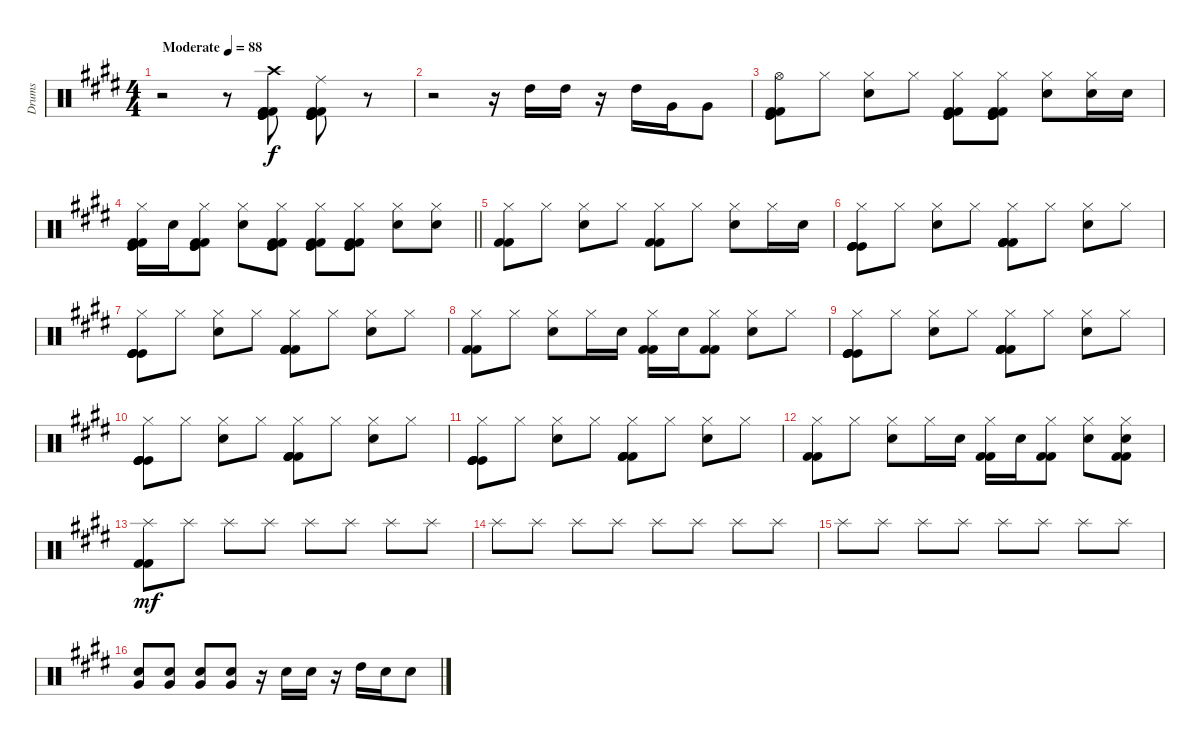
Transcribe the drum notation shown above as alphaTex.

\track ("Drums" "Drums") {instrument percussion}
\staff {score}
\articulation defaults
\ts (4 4)
\tempo (88 "Moderate")
\clef neutral
\ks e
r.2{dy f} r.8 ("Crash high (hit)" "Kick (hit) 2" "Kick (hit) 2" "Kick (hit) 2" "Kick (hit)" "Kick (hit)").8 ("Ride (middle)" "Kick (hit)" "Kick (hit) 2" "Kick (hit) 2" "Kick (hit)" "Kick (hit)").8 r.8 |
r.2 r.16 "High Tom (hit)".16 "High Tom (hit)".16 r.16 "High Tom (hit)".16 "Very Low Tom (hit)".16 "Very Low Tom (hit)".8 |
("Hi-Hat (open)" "Kick (hit) 2" "Kick (hit) 2" "Kick (hit)" "Kick (hit)").8 "Hi-Hat (closed)".8 ("Hi-Hat (closed)" "Snare (hit) 2").8 "Hi-Hat (closed)".8 ("Hi-Hat (closed)" "Kick (hit) 2" "Kick (hit) 2" "Kick (hit)" "Kick (hit)").8 ("Hi-Hat (closed)" "Kick (hit) 2" "Kick (hit) 2" "Kick (hit)" "Kick (hit)").8 ("Hi-Hat (closed)" "Snare (hit) 2").8 ("Hi-Hat (closed)" "Snare (hit) 2").16 "Snare (hit) 2".16 |
\barLineRight lightlight
("Hi-Hat (closed)" "Kick (hit) 2" "Kick (hit) 2" "Kick (hit)" "Kick (hit)").16 "Snare (hit) 2".16 ("Hi-Hat (closed)" "Kick (hit) 2" "Kick (hit) 2" "Kick (hit)" "Kick (hit)").8 ("Hi-Hat (closed)" "Snare (hit) 2").8 ("Hi-Hat (closed)" "Kick (hit) 2" "Kick (hit) 2" "Kick (hit)" "Kick (hit)").8 ("Hi-Hat (closed)" "Kick (hit) 2" "Kick (hit) 2" "Kick (hit)" "Kick (hit)").8 ("Hi-Hat (closed)" "Kick (hit) 2" "Kick (hit) 2" "Kick (hit)" "Kick (hit)").8 ("Hi-Hat (closed)" "Snare (hit) 2").8 ("Hi-Hat (closed)" "Snare (hit) 2").8 |
("Hi-Hat (closed)" "Kick (hit) 2" "Kick (hit) 2").8 "Hi-Hat (closed)".8 ("Hi-Hat (closed)" "Snare (hit) 2").8 "Hi-Hat (closed)".8 ("Hi-Hat (closed)" "Kick (hit) 2" "Kick (hit) 2").8 "Hi-Hat (closed)".8 ("Hi-Hat (closed)" "Snare (hit) 2").8 "Hi-Hat (closed)".16 "Snare (hit) 2".16 |
("Hi-Hat (closed)" "Kick (hit)" "Kick (hit)" "Kick (hit)" "Kick (hit)").8 "Hi-Hat (closed)".8 ("Hi-Hat (closed)" "Snare (hit) 2").8 "Hi-Hat (closed)".8 ("Hi-Hat (closed)" "Kick (hit) 2" "Kick (hit) 2" "Kick (hit) 2" "Kick (hit) 2").8 "Hi-Hat (closed)".8 ("Hi-Hat (closed)" "Snare (hit) 2").8 "Hi-Hat (closed)".8 |
("Hi-Hat (closed)" "Kick (hit)" "Kick (hit)" "Kick (hit)" "Kick (hit)").8 "Hi-Hat (closed)".8 ("Hi-Hat (closed)" "Snare (hit) 2").8 "Hi-Hat (closed)".8 ("Hi-Hat (closed)" "Kick (hit) 2" "Kick (hit) 2" "Kick (hit) 2" "Kick (hit) 2").8 "Hi-Hat (closed)".8 ("Hi-Hat (closed)" "Snare (hit) 2").8 "Hi-Hat (closed)".8 |
("Hi-Hat (closed)" "Kick (hit) 2" "Kick (hit) 2").8 "Hi-Hat (closed)".8 ("Hi-Hat (closed)" "Snare (hit) 2").8 "Hi-Hat (closed)".16 "Snare (hit) 2".16 ("Hi-Hat (closed)" "Kick (hit) 2" "Kick (hit) 2").16 "Snare (hit) 2".16 ("Hi-Hat (closed)" "Kick (hit) 2" "Kick (hit) 2").8 ("Hi-Hat (closed)" "Snare (hit) 2").8 "Hi-Hat (closed)".8 |
("Hi-Hat (closed)" "Kick (hit)" "Kick (hit)" "Kick (hit)" "Kick (hit)").8 "Hi-Hat (closed)".8 ("Hi-Hat (closed)" "Snare (hit) 2").8 "Hi-Hat (closed)".8 ("Hi-Hat (closed)" "Kick (hit) 2" "Kick (hit) 2" "Kick (hit) 2" "Kick (hit) 2").8 "Hi-Hat (closed)".8 ("Hi-Hat (closed)" "Snare (hit) 2").8 "Hi-Hat (closed)".8 |
("Hi-Hat (closed)" "Kick (hit)" "Kick (hit)" "Kick (hit)" "Kick (hit)").8 "Hi-Hat (closed)".8 ("Hi-Hat (closed)" "Snare (hit) 2").8 "Hi-Hat (closed)".8 ("Hi-Hat (closed)" "Kick (hit) 2" "Kick (hit) 2" "Kick (hit) 2" "Kick (hit) 2").8 "Hi-Hat (closed)".8 ("Hi-Hat (closed)" "Snare (hit) 2").8 "Hi-Hat (closed)".8 |
("Hi-Hat (closed)" "Kick (hit)" "Kick (hit)" "Kick (hit)" "Kick (hit)").8 "Hi-Hat (closed)".8 ("Hi-Hat (closed)" "Snare (hit) 2").8 "Hi-Hat (closed)".8 ("Hi-Hat (closed)" "Kick (hit) 2" "Kick (hit) 2" "Kick (hit) 2" "Kick (hit) 2").8 "Hi-Hat (closed)".8 ("Hi-Hat (closed)" "Snare (hit) 2").8 "Hi-Hat (closed)".8 |
("Hi-Hat (closed)" "Kick (hit) 2" "Kick (hit) 2").8 "Hi-Hat (closed)".8 ("Hi-Hat (closed)" "Snare (hit) 2").8 "Hi-Hat (closed)".16 "Snare (hit) 2".16 ("Hi-Hat (closed)" "Kick (hit) 2" "Kick (hit) 2").16 "Snare (hit) 2".16 ("Hi-Hat (closed)" "Kick (hit) 2" "Kick (hit) 2").8 ("Hi-Hat (closed)" "Snare (hit) 2").8 ("Hi-Hat (closed)" "Snare (hit) 2" "Kick (hit) 2" "Kick (hit) 2").8 |
("Splash (hit)" "Kick (hit) 2" "Kick (hit) 2").8{dy mf} "Splash (hit)".8 "Splash (hit)".8 "Splash (hit)".8 "Splash (hit)".8 "Splash (hit)".8 "Splash (hit)".8 "Splash (hit)".8 |
"Splash (hit)".8 "Splash (hit)".8 "Splash (hit)".8 "Splash (hit)".8 "Splash (hit)".8 "Splash (hit)".8 "Splash (hit)".8 "Splash (hit)".8 |
"Splash (hit)".8 "Splash (hit)".8 "Splash (hit)".8 "Splash (hit)".8 "Splash (hit)".8 "Splash (hit)".8 "Splash (hit)".8 "Splash (hit)".8 |
("Snare (hit) 2" "Very Low Tom (hit)").8 ("Snare (hit) 2" "Very Low Tom (hit)").8 ("Snare (hit) 2" "Very Low Tom (hit)").8 ("Snare (hit) 2" "Very Low Tom (hit)").8 r.16 "Snare (hit) 2".16 "Snare (hit) 2".16 r.16 "High Tom (hit)".16 "Snare (hit) 2".16 "Snare (hit) 2".8
